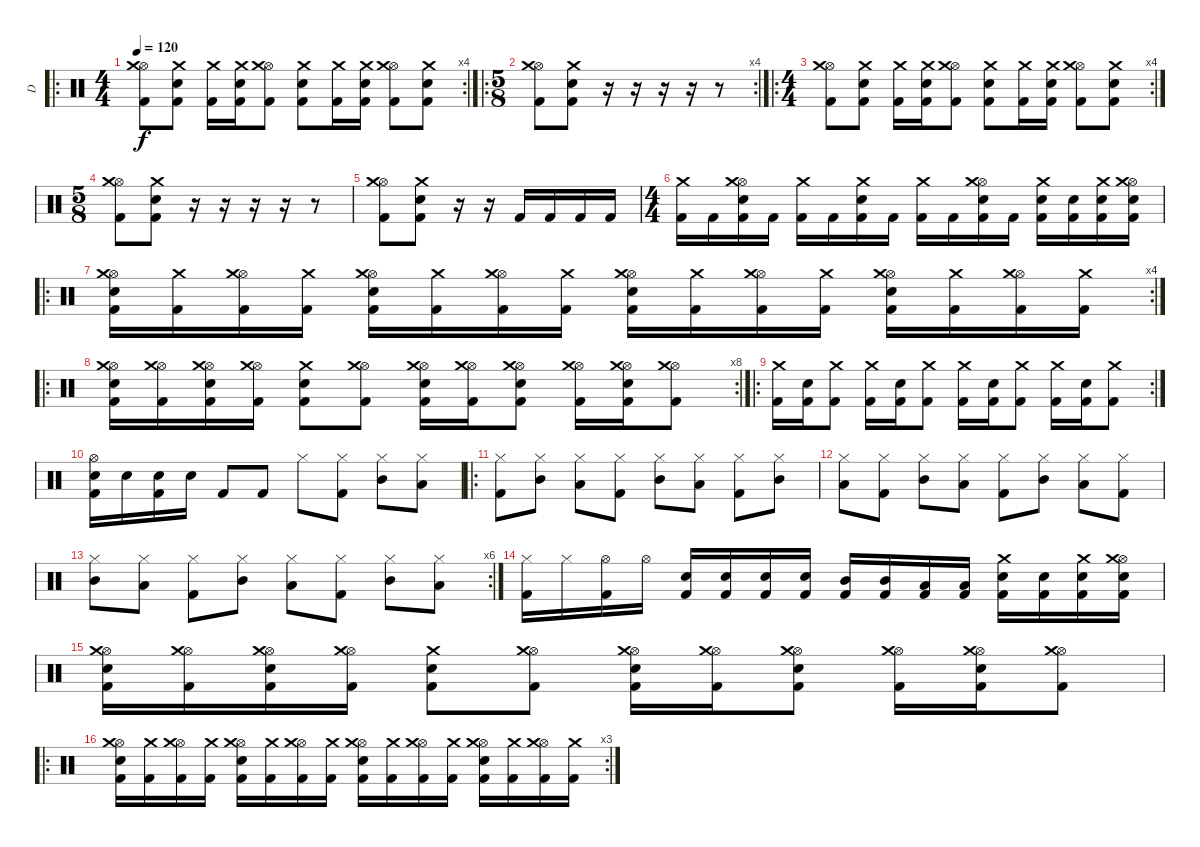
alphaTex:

\track ("D" "D") {instrument percussion}
\staff {score}
\articulation defaults
\ro
\rc 4
\ts (4 4)
\tempo 120
\clef neutral
\ks c
("Hi-Hat (open)" "Crash medium (hit)" "Kick (hit) 2").8{dy f} ("Electric Snare (hit)" "Crash medium (hit)" "Kick (hit) 2").8 ("Crash medium (hit)" "Kick (hit) 2").16 ("Electric Snare (hit)" "Crash medium (hit)" "Kick (hit) 2").16 ("Hi-Hat (open)" "Crash medium (hit)" "Kick (hit) 2").8 ("Electric Snare (hit)" "Crash medium (hit)" "Kick (hit) 2").8 ("Crash medium (hit)" "Kick (hit) 2").16 ("Electric Snare (hit)" "Crash medium (hit)" "Kick (hit) 2").16 ("Hi-Hat (open)" "Crash medium (hit)" "Kick (hit) 2").8 ("Electric Snare (hit)" "Crash medium (hit)" "Kick (hit) 2").8 |
\ro
\rc 4
\ts (5 8)
("Hi-Hat (open)" "Crash medium (hit)" "Kick (hit) 2").8 ("Electric Snare (hit)" "Crash medium (hit)" "Kick (hit) 2").8 r.16 r.16 r.16 r.16 r.8 |
\ro
\rc 4
\ts (4 4)
("Hi-Hat (open)" "Crash medium (hit)" "Kick (hit) 2").8 ("Electric Snare (hit)" "Crash medium (hit)" "Kick (hit) 2").8 ("Crash medium (hit)" "Kick (hit) 2").16 ("Electric Snare (hit)" "Crash medium (hit)" "Kick (hit) 2").16 ("Hi-Hat (open)" "Crash medium (hit)" "Kick (hit) 2").8 ("Electric Snare (hit)" "Crash medium (hit)" "Kick (hit) 2").8 ("Crash medium (hit)" "Kick (hit) 2").16 ("Electric Snare (hit)" "Crash medium (hit)" "Kick (hit) 2").16 ("Hi-Hat (open)" "Crash medium (hit)" "Kick (hit) 2").8 ("Electric Snare (hit)" "Crash medium (hit)" "Kick (hit) 2").8 |
\ts (5 8)
("Hi-Hat (open)" "Crash medium (hit)" "Kick (hit) 2").8 ("Electric Snare (hit)" "Crash medium (hit)" "Kick (hit) 2").8 r.16 r.16 r.16 r.16 r.8 |
("Hi-Hat (open)" "Crash medium (hit)" "Kick (hit) 2").8 ("Electric Snare (hit)" "Crash medium (hit)" "Kick (hit) 2").8 r.16 r.16 "Kick (hit) 2".16 "Kick (hit) 2".16 "Kick (hit) 2".16 "Kick (hit) 2".16 |
\ts (4 4)
("Crash medium (hit)" "Kick (hit) 2").16 "Kick (hit) 2".16 ("Hi-Hat (open)" "Electric Snare (hit)" "Crash medium (hit)" "Kick (hit) 2").16 "Kick (hit) 2".16 ("Crash medium (hit)" "Kick (hit) 2").16 "Kick (hit) 2".16 ("Electric Snare (hit)" "Crash medium (hit)" "Kick (hit) 2").16 "Kick (hit) 2".16 ("Crash medium (hit)" "Kick (hit) 2").16 "Kick (hit) 2".16 ("Hi-Hat (open)" "Electric Snare (hit)" "Crash medium (hit)" "Kick (hit) 2").16 "Kick (hit) 2".16 ("Electric Snare (hit)" "Crash medium (hit)" "Kick (hit) 2").16 ("Electric Snare (hit)" "Kick (hit) 2").16 ("Electric Snare (hit)" "Crash medium (hit)" "Kick (hit) 2").16 ("Hi-Hat (open)" "Electric Snare (hit)" "Crash medium (hit)" "Kick (hit) 2").16 |
\ro
\rc 4
("Hi-Hat (open)" "Electric Snare (hit)" "Crash medium (hit)" "Kick (hit) 2").16 ("Crash medium (hit)" "Kick (hit) 2").16 ("Hi-Hat (open)" "Crash medium (hit)" "Kick (hit) 2").16 ("Crash medium (hit)" "Kick (hit) 2").16 ("Hi-Hat (open)" "Electric Snare (hit)" "Crash medium (hit)" "Kick (hit) 2").16 ("Crash medium (hit)" "Kick (hit) 2").16 ("Hi-Hat (open)" "Crash medium (hit)" "Kick (hit) 2").16 ("Crash medium (hit)" "Kick (hit) 2").16 ("Hi-Hat (open)" "Electric Snare (hit)" "Crash medium (hit)" "Kick (hit) 2").16 ("Crash medium (hit)" "Kick (hit) 2").16 ("Hi-Hat (open)" "Crash medium (hit)" "Kick (hit) 2").16 ("Crash medium (hit)" "Kick (hit) 2").16 ("Hi-Hat (open)" "Electric Snare (hit)" "Crash medium (hit)" "Kick (hit) 2").16 ("Crash medium (hit)" "Kick (hit) 2").16 ("Hi-Hat (open)" "Crash medium (hit)" "Kick (hit) 2").16 ("Crash medium (hit)" "Kick (hit) 2").16 |
\ro
\rc 8
("Electric Snare (hit)" "Hi-Hat (open)" "Crash medium (hit)" "Kick (hit) 2").16 ("Hi-Hat (open)" "Crash medium (hit)" "Kick (hit) 2").16 ("Hi-Hat (open)" "Electric Snare (hit)" "Crash medium (hit)" "Kick (hit) 2").16 ("Hi-Hat (open)" "Crash medium (hit)" "Kick (hit) 2").16 ("Electric Snare (hit)" "Crash medium (hit)" "Kick (hit) 2").8 ("Hi-Hat (open)" "Crash medium (hit)" "Kick (hit) 2").8 ("Hi-Hat (open)" "Electric Snare (hit)" "Crash medium (hit)" "Kick (hit) 2").16 ("Hi-Hat (open)" "Crash medium (hit)" "Kick (hit) 2").16 ("Hi-Hat (open)" "Electric Snare (hit)" "Crash medium (hit)" "Kick (hit) 2").8 ("Hi-Hat (open)" "Crash medium (hit)" "Kick (hit) 2").16 ("Hi-Hat (open)" "Electric Snare (hit)" "Crash medium (hit)" "Kick (hit) 2").16 ("Hi-Hat (open)" "Crash medium (hit)" "Kick (hit) 2").8 |
\ro
\rc 2
("Crash medium (hit)" "Kick (hit) 2").16 ("Electric Snare (hit)" "Kick (hit) 2").16 ("Crash medium (hit)" "Kick (hit) 2").8 ("Crash medium (hit)" "Kick (hit) 2").16 ("Electric Snare (hit)" "Kick (hit) 2").16 ("Crash medium (hit)" "Kick (hit) 2").8 ("Crash medium (hit)" "Kick (hit) 2").16 ("Electric Snare (hit)" "Kick (hit) 2").16 ("Crash medium (hit)" "Kick (hit) 2").8 ("Crash medium (hit)" "Kick (hit) 2").16 ("Electric Snare (hit)" "Kick (hit) 2").16 ("Crash medium (hit)" "Kick (hit) 2").8 |
("Hi-Hat (open)" "Electric Snare (hit)" "Kick (hit) 2").16 "Electric Snare (hit)".16 ("Electric Snare (hit)" "Kick (hit) 2").16 "Electric Snare (hit)".16 "Kick (hit) 2".8 "Kick (hit) 2".8 "Hi-Hat (closed)".8 ("Hi-Hat (closed)" "Kick (hit) 2").8 ("Mid Tom (hit)" "Hi-Hat (closed)").8 ("Low Tom (hit)" "Hi-Hat (closed)").8 |
\ro
("Hi-Hat (closed)" "Kick (hit) 2").8 ("Mid Tom (hit)" "Hi-Hat (closed)").8 ("Low Tom (hit)" "Hi-Hat (closed)").8 ("Hi-Hat (closed)" "Kick (hit) 2").8 ("Mid Tom (hit)" "Hi-Hat (closed)").8 ("Low Tom (hit)" "Hi-Hat (closed)").8 ("Hi-Hat (closed)" "Kick (hit) 2").8 ("Mid Tom (hit)" "Hi-Hat (closed)").8 |
("Low Tom (hit)" "Hi-Hat (closed)").8 ("Hi-Hat (closed)" "Kick (hit) 2").8 ("Mid Tom (hit)" "Hi-Hat (closed)").8 ("Low Tom (hit)" "Hi-Hat (closed)").8 ("Hi-Hat (closed)" "Kick (hit) 2").8 ("Mid Tom (hit)" "Hi-Hat (closed)").8 ("Low Tom (hit)" "Hi-Hat (closed)").8 ("Hi-Hat (closed)" "Kick (hit) 2").8 |
\rc 6
("Mid Tom (hit)" "Hi-Hat (closed)").8 ("Low Tom (hit)" "Hi-Hat (closed)").8 ("Hi-Hat (closed)" "Kick (hit) 2").8 ("Mid Tom (hit)" "Hi-Hat (closed)").8 ("Low Tom (hit)" "Hi-Hat (closed)").8 ("Hi-Hat (closed)" "Kick (hit) 2").8 ("Mid Tom (hit)" "Hi-Hat (closed)").8 ("Low Tom (hit)" "Hi-Hat (closed)").8 |
("Hi-Hat (closed)" "Kick (hit) 2").16 "Hi-Hat (closed)".16 ("Hi-Hat (open)" "Kick (hit) 2").16 "Hi-Hat (open)".16 ("Electric Snare (hit)" "Kick (hit) 2").16 ("Electric Snare (hit)" "Kick (hit) 2").16 ("Electric Snare (hit)" "Kick (hit) 2").16 ("Electric Snare (hit)" "Kick (hit) 2").16 ("Mid Tom (hit)" "Kick (hit) 2").16 ("Mid Tom (hit)" "Kick (hit) 2").16 ("Low Tom (hit)" "Kick (hit) 2").16 ("Low Tom (hit)" "Kick (hit) 2").16 ("Electric Snare (hit)" "Crash medium (hit)" "Kick (hit) 2").16 ("Electric Snare (hit)" "Kick (hit) 2").16 ("Electric Snare (hit)" "Crash medium (hit)" "Kick (hit) 2").16 ("Hi-Hat (open)" "Electric Snare (hit)" "Crash medium (hit)" "Kick (hit) 2").16 |
("Electric Snare (hit)" "Hi-Hat (open)" "Crash medium (hit)" "Kick (hit) 2").16 ("Hi-Hat (open)" "Crash medium (hit)" "Kick (hit) 2").16 ("Hi-Hat (open)" "Electric Snare (hit)" "Crash medium (hit)" "Kick (hit) 2").16 ("Hi-Hat (open)" "Crash medium (hit)" "Kick (hit) 2").16 ("Electric Snare (hit)" "Crash medium (hit)" "Kick (hit) 2").8 ("Hi-Hat (open)" "Crash medium (hit)" "Kick (hit) 2").8 ("Hi-Hat (open)" "Electric Snare (hit)" "Crash medium (hit)" "Kick (hit) 2").16 ("Hi-Hat (open)" "Crash medium (hit)" "Kick (hit) 2").16 ("Hi-Hat (open)" "Electric Snare (hit)" "Crash medium (hit)" "Kick (hit) 2").8 ("Hi-Hat (open)" "Crash medium (hit)" "Kick (hit) 2").16 ("Hi-Hat (open)" "Electric Snare (hit)" "Crash medium (hit)" "Kick (hit) 2").16 ("Hi-Hat (open)" "Crash medium (hit)" "Kick (hit) 2").8 |
\ro
\rc 3
("Hi-Hat (open)" "Electric Snare (hit)" "Crash medium (hit)" "Kick (hit) 2").16 ("Crash medium (hit)" "Kick (hit) 2").16 ("Hi-Hat (open)" "Crash medium (hit)" "Kick (hit) 2").16 ("Crash medium (hit)" "Kick (hit) 2").16 ("Hi-Hat (open)" "Electric Snare (hit)" "Crash medium (hit)" "Kick (hit) 2").16 ("Crash medium (hit)" "Kick (hit) 2").16 ("Hi-Hat (open)" "Crash medium (hit)" "Kick (hit) 2").16 ("Crash medium (hit)" "Kick (hit) 2").16 ("Hi-Hat (open)" "Electric Snare (hit)" "Crash medium (hit)" "Kick (hit) 2").16 ("Crash medium (hit)" "Kick (hit) 2").16 ("Hi-Hat (open)" "Crash medium (hit)" "Kick (hit) 2").16 ("Crash medium (hit)" "Kick (hit) 2").16 ("Hi-Hat (open)" "Electric Snare (hit)" "Crash medium (hit)" "Kick (hit) 2").16 ("Crash medium (hit)" "Kick (hit) 2").16 ("Hi-Hat (open)" "Crash medium (hit)" "Kick (hit) 2").16 ("Crash medium (hit)" "Kick (hit) 2").16
